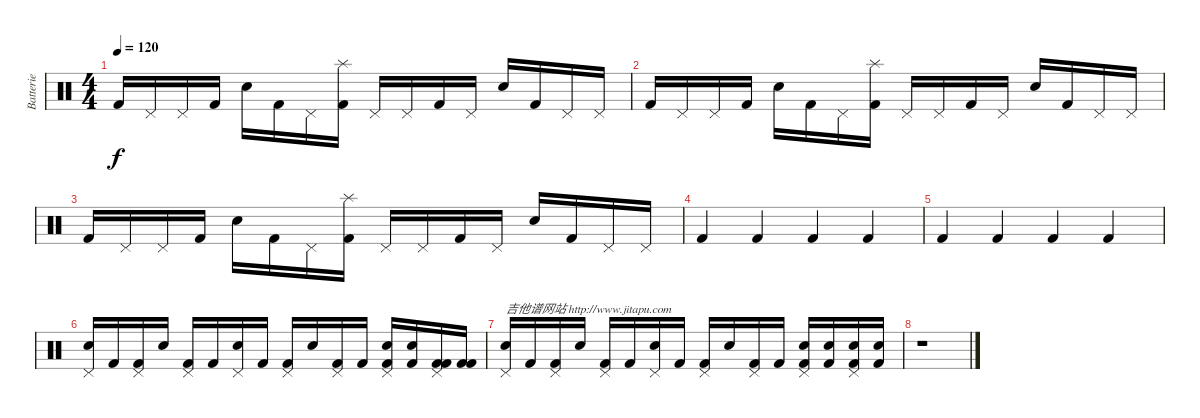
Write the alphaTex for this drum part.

\track ("Batterie" "Batterie") {instrument percussion}
\staff {score}
\articulation defaults
\ts (4 4)
\tempo 120
\clef neutral
\ks c "Kick (hit) 2".16{dy f} "Pedal Hi-Hat (hit)".16 "Pedal Hi-Hat (hit)".16 "Kick (hit) 2".16 "Electric Snare (hit)".16 "Kick (hit) 2".16 "Pedal Hi-Hat (hit)".16
("Splash (hit)" "Kick (hit) 2").16 "Pedal Hi-Hat (hit)".16 "Pedal Hi-Hat (hit)".16 "Kick (hit) 2".16 "Pedal Hi-Hat (hit)".16 "Electric Snare (hit)".16 "Kick (hit) 2".16 "Pedal Hi-Hat (hit)".16 "Pedal Hi-Hat (hit)".16 |
"Kick (hit) 2".16 "Pedal Hi-Hat (hit)".16 "Pedal Hi-Hat (hit)".16 "Kick (hit) 2".16 "Electric Snare (hit)".16 "Kick (hit) 2".16 "Pedal Hi-Hat (hit)".16 ("Splash (hit)" "Kick (hit) 2").16 "Pedal Hi-Hat (hit)".16 "Pedal Hi-Hat (hit)".16 "Kick (hit) 2".16 "Pedal Hi-Hat (hit)".16 "Electric Snare (hit)".16 "Kick (hit) 2".16 "Pedal Hi-Hat (hit)".16 "Pedal Hi-Hat (hit)".16 |
"Kick (hit) 2".16 "Pedal Hi-Hat (hit)".16 "Pedal Hi-Hat (hit)".16 "Kick (hit) 2".16 "Electric Snare (hit)".16 "Kick (hit) 2".16 "Pedal Hi-Hat (hit)".16 ("Splash (hit)" "Kick (hit) 2").16 "Pedal Hi-Hat (hit)".16 "Pedal Hi-Hat (hit)".16 "Kick (hit) 2".16 "Pedal Hi-Hat (hit)".16 "Electric Snare (hit)".16 "Kick (hit) 2".16 "Pedal Hi-Hat (hit)".16 "Pedal Hi-Hat (hit)".16 |
"Kick (hit) 2".4 "Kick (hit) 2".4 "Kick (hit) 2".4 "Kick (hit) 2".4 |
"Kick (hit) 2".4 "Kick (hit) 2".4 "Kick (hit) 2".4 "Kick (hit) 2".4 |
("Pedal Hi-Hat (hit)" "Electric Snare (hit)").16 "Kick (hit) 2".16 ("Pedal Hi-Hat (hit)" "Kick (hit) 2").16 "Electric Snare (hit)".16 ("Pedal Hi-Hat (hit)" "Kick (hit) 2").16 "Kick (hit) 2".16 ("Pedal Hi-Hat (hit)" "Electric Snare (hit)").16 "Kick (hit) 2".16 ("Pedal Hi-Hat (hit)" "Kick (hit) 2").16 "Electric Snare (hit)".16 ("Pedal Hi-Hat (hit)" "Kick (hit) 2").16 "Kick (hit) 2".16 ("Pedal Hi-Hat (hit)" "Snare (hit) 2" "Kick (hit) 2").16 ("Snare (hit) 2" "Kick (hit) 2").16 ("Pedal Hi-Hat (hit)" "Kick (hit) 2" "Kick (hit) 2").16 ("Kick (hit) 2" "Kick (hit) 2").16 |
("Pedal Hi-Hat (hit)" "Electric Snare (hit)").16{txt "吉他谱网站 http://www.jitapu.com"} "Kick (hit) 2".16 ("Pedal Hi-Hat (hit)" "Kick (hit) 2").16 "Electric Snare (hit)".16 ("Pedal Hi-Hat (hit)" "Kick (hit) 2").16 "Kick (hit) 2".16 ("Pedal Hi-Hat (hit)" "Electric Snare (hit)").16 "Kick (hit) 2".16 ("Pedal Hi-Hat (hit)" "Kick (hit) 2").16 "Electric Snare (hit)".16 ("Pedal Hi-Hat (hit)" "Kick (hit) 2").16 "Kick (hit) 2".16 ("Pedal Hi-Hat (hit)" "Electric Snare (hit)" "Kick (hit) 2").16 ("Electric Snare (hit)" "Kick (hit) 2").16 ("Pedal Hi-Hat (hit)" "Electric Snare (hit)" "Kick (hit) 2").16 ("Electric Snare (hit)" "Kick (hit) 2").16 |
r.1
